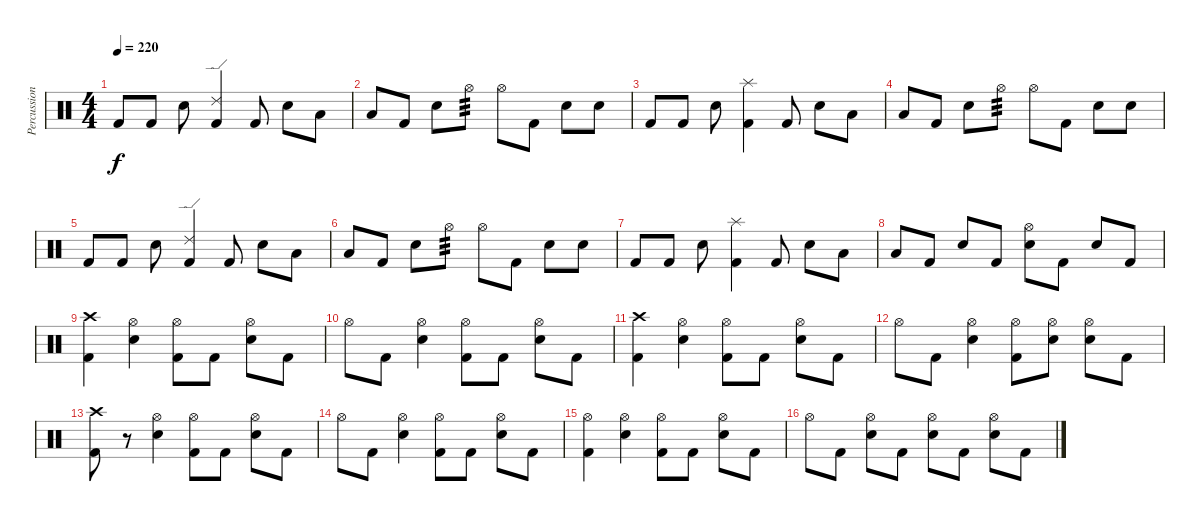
\track ("Percussion" "Percussion") {instrument percussion}
\staff {score}
\articulation defaults
\ts (4 4)
\tempo 220
\clef neutral
\ks c "Kick (hit) 2".8{dy f} "Kick (hit) 2".8 "Electric Snare (hit)".8
("Ride (edge) 2" "Kick (hit) 2").4 "Kick (hit) 2".8 "Electric Snare (hit)".8 "Low Tom (hit)".8 |
"Low Floor Tom (hit)".8 "Kick (hit) 2".8 "Electric Snare (hit)".8 "Hi-Hat (open)".8{tp 3} "Hi-Hat (open)".8 "Kick (hit) 2".8 "Electric Snare (hit)".8 "Electric Snare (hit)".8 |
"Kick (hit) 2".8 "Kick (hit) 2".8 "Electric Snare (hit)".8 ("Splash (hit)" "Kick (hit) 2").4 "Kick (hit) 2".8 "Electric Snare (hit)".8 "Low Tom (hit)".8 |
"Low Floor Tom (hit)".8 "Kick (hit) 2".8 "Electric Snare (hit)".8 "Hi-Hat (open)".8{tp 3} "Hi-Hat (open)".8 "Kick (hit) 2".8 "Electric Snare (hit)".8 "Electric Snare (hit)".8 |
"Kick (hit) 2".8 "Kick (hit) 2".8 "Electric Snare (hit)".8 ("Ride (edge) 2" "Kick (hit) 2").4 "Kick (hit) 2".8 "Electric Snare (hit)".8 "Low Tom (hit)".8 |
"Low Floor Tom (hit)".8 "Kick (hit) 2".8 "Electric Snare (hit)".8 "Hi-Hat (open)".8{tp 3} "Hi-Hat (open)".8 "Kick (hit) 2".8 "Electric Snare (hit)".8 "Electric Snare (hit)".8 |
"Kick (hit) 2".8 "Kick (hit) 2".8 "Electric Snare (hit)".8 ("Splash (hit)" "Kick (hit) 2").4 "Kick (hit) 2".8 "Electric Snare (hit)".8 "Low Tom (hit)".8 |
"Low Floor Tom (hit)".8 "Kick (hit) 2".8 "Electric Snare (hit)".8 "Kick (hit) 2".8 ("Hi-Hat (open)" "Electric Snare (hit)").8 "Kick (hit) 2".8 "Electric Snare (hit)".8 "Kick (hit) 2".8 |
("Crash high (hit)" "Kick (hit) 2").4 ("Hi-Hat (open)" "Electric Snare (hit)").4 ("Hi-Hat (open)" "Kick (hit) 2").8 "Kick (hit) 2".8 ("Hi-Hat (open)" "Electric Snare (hit)").8 "Kick (hit) 2".8 |
"Hi-Hat (open)".8 "Kick (hit) 2".8 ("Hi-Hat (open)" "Electric Snare (hit)").4 ("Hi-Hat (open)" "Kick (hit) 2").8 "Kick (hit) 2".8 ("Hi-Hat (open)" "Electric Snare (hit)").8 "Kick (hit) 2".8 |
("Crash high (hit)" "Kick (hit) 2").4 ("Hi-Hat (open)" "Electric Snare (hit)").4 ("Hi-Hat (open)" "Kick (hit) 2").8 "Kick (hit) 2".8 ("Hi-Hat (open)" "Electric Snare (hit)").8 "Kick (hit) 2".8 |
"Hi-Hat (open)".8 "Kick (hit) 2".8 ("Hi-Hat (open)" "Electric Snare (hit)").4 ("Hi-Hat (open)" "Kick (hit) 2").8 ("Hi-Hat (open)" "Electric Snare (hit)").8 ("Hi-Hat (open)" "Electric Snare (hit)").8 "Kick (hit) 2".8 |
("Crash high (hit)" "Kick (hit) 2").8 r.8 ("Hi-Hat (open)" "Electric Snare (hit)").4 ("Hi-Hat (open)" "Kick (hit) 2").8 "Kick (hit) 2".8 ("Hi-Hat (open)" "Electric Snare (hit)").8 "Kick (hit) 2".8 |
"Hi-Hat (open)".8 "Kick (hit) 2".8 ("Hi-Hat (open)" "Electric Snare (hit)").4 ("Hi-Hat (open)" "Kick (hit) 2").8 "Kick (hit) 2".8 ("Hi-Hat (open)" "Electric Snare (hit)").8 "Kick (hit) 2".8 |
("Hi-Hat (open)" "Kick (hit) 2").4 ("Hi-Hat (open)" "Electric Snare (hit)").4 ("Hi-Hat (open)" "Kick (hit) 2").8 "Kick (hit) 2".8 ("Hi-Hat (open)" "Electric Snare (hit)").8 "Kick (hit) 2".8 |
"Hi-Hat (open)".8 "Kick (hit) 2".8 ("Hi-Hat (open)" "Electric Snare (hit)").8 "Kick (hit) 2".8 ("Hi-Hat (open)" "Electric Snare (hit)").8 "Kick (hit) 2".8 ("Hi-Hat (open)" "Electric Snare (hit)").8 "Kick (hit) 2".8
